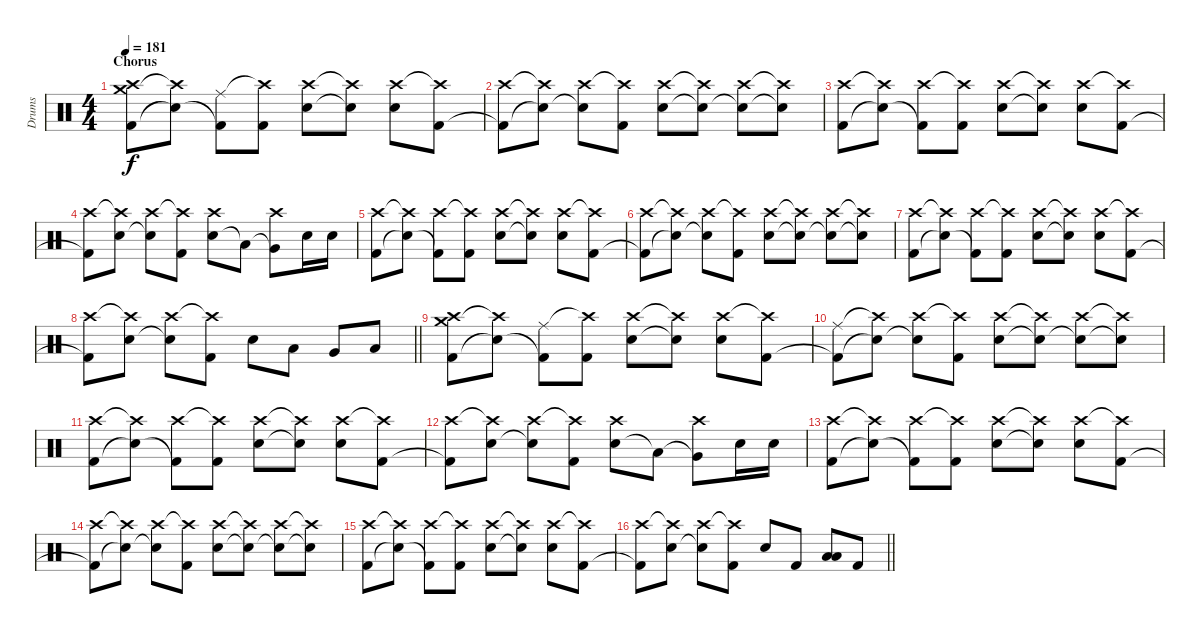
\track ("Drums" "Drums") {instrument percussion}
\staff {score}
\articulation defaults
\ts (4 4)
\section ("" "Chorus")
\tempo 181
\clef neutral
\ks c
("Kick (hit) 2" "Crash medium (hit)" "Crash high (hit)").8{dy f} ("Snare (hit)"{t} "Crash high (hit)"{t}).8 ("Kick (hit) 2"{t} "Ride (middle)").8 ("Kick (hit) 2" "Crash high (hit)"{t}).8 ("Electric Snare (hit)" "Crash high (hit)").8 ("Electric Snare (hit)"{t} "Crash high (hit)"{t}).8 ("Electric Snare (hit)" "Crash high (hit)").8 ("Kick (hit) 2" "Crash high (hit)"{t}).8 |
("Kick (hit) 2"{t} "Crash high (hit)").8 ("Snare (hit)"{t} "Crash high (hit)"{t}).8 ("Snare (hit)"{t} "Crash high (hit)").8 ("Kick (hit) 2" "Crash high (hit)"{t}).8 ("Electric Snare (hit)" "Crash high (hit)").8 ("Snare (hit)"{t} "Crash high (hit)"{t}).8 ("Snare (hit)"{t} "Crash high (hit)").8 ("Snare (hit)"{t} "Crash high (hit)"{t}).8 |
("Kick (hit) 2" "Crash high (hit)").8 ("Snare (hit)"{t} "Crash high (hit)"{t}).8 ("Kick (hit) 2"{t} "Crash high (hit)").8 ("Kick (hit) 2" "Crash high (hit)"{t}).8 ("Electric Snare (hit)" "Crash high (hit)").8 ("Electric Snare (hit)"{t} "Crash high (hit)"{t}).8 ("Electric Snare (hit)" "Crash high (hit)").8 ("Kick (hit) 2" "Crash high (hit)"{t}).8 |
("Kick (hit) 2"{t} "Crash high (hit)").8 ("Electric Snare (hit)" "Crash high (hit)"{t}).8 ("Snare (hit)"{t} "Crash high (hit)").8 ("Kick (hit) 2" "Crash high (hit)"{t}).8 ("Electric Snare (hit)" "Crash high (hit)").8 "Low Tom (hit)"{t}.8 ("Very Low Tom (hit)"{t} "Crash high (hit)").8 "Electric Snare (hit)".16 "Electric Snare (hit)".16 |
("Kick (hit) 2" "Crash high (hit)").8 ("Snare (hit)"{t} "Crash high (hit)"{t}).8 ("Kick (hit) 2"{t} "Crash high (hit)").8 ("Kick (hit) 2" "Crash high (hit)"{t}).8 ("Electric Snare (hit)" "Crash high (hit)").8 ("Electric Snare (hit)"{t} "Crash high (hit)"{t}).8 ("Electric Snare (hit)" "Crash high (hit)").8 ("Kick (hit) 2" "Crash high (hit)"{t}).8 |
("Kick (hit) 2"{t} "Crash high (hit)").8 ("Snare (hit)"{t} "Crash high (hit)"{t}).8 ("Snare (hit)"{t} "Crash high (hit)").8 ("Kick (hit) 2" "Crash high (hit)"{t}).8 ("Electric Snare (hit)" "Crash high (hit)").8 ("Snare (hit)"{t} "Crash high (hit)"{t}).8 ("Snare (hit)"{t} "Crash high (hit)").8 ("Snare (hit)"{t} "Crash high (hit)"{t}).8 |
("Kick (hit) 2" "Crash high (hit)").8 ("Snare (hit)"{t} "Crash high (hit)"{t}).8 ("Kick (hit) 2"{t} "Crash high (hit)").8 ("Kick (hit) 2" "Crash high (hit)"{t}).8 ("Electric Snare (hit)" "Crash high (hit)").8 ("Electric Snare (hit)"{t} "Crash high (hit)"{t}).8 ("Electric Snare (hit)" "Crash high (hit)").8 ("Kick (hit) 2" "Crash high (hit)"{t}).8 |
\barLineRight lightlight
("Kick (hit) 2"{t} "Crash high (hit)").8 ("Electric Snare (hit)" "Crash high (hit)"{t}).8 ("Snare (hit)"{t} "Crash high (hit)").8 ("Kick (hit) 2" "Crash high (hit)"{t}).8 "Electric Snare (hit)".8 "Low Tom (hit)".8 "Very Low Tom (hit)".8 "Low Floor Tom (hit)".8 |
("Kick (hit) 2" "Crash medium (hit)" "Crash high (hit)").8 ("Snare (hit)"{t} "Crash high (hit)"{t}).8 ("Kick (hit) 2"{t} "Ride (middle)").8 ("Kick (hit) 2" "Crash high (hit)"{t}).8 ("Electric Snare (hit)" "Crash high (hit)").8 ("Electric Snare (hit)"{t} "Crash high (hit)"{t}).8 ("Electric Snare (hit)" "Crash high (hit)").8 ("Kick (hit) 2" "Crash high (hit)"{t}).8 |
("Kick (hit) 2"{t} "Ride (middle)").8 ("Snare (hit)"{t} "Crash high (hit)"{t}).8 ("Snare (hit)"{t} "Crash high (hit)").8 ("Kick (hit) 2" "Crash high (hit)"{t}).8 ("Electric Snare (hit)" "Crash high (hit)").8 ("Snare (hit)"{t} "Crash high (hit)"{t}).8 ("Snare (hit)"{t} "Crash high (hit)").8 ("Snare (hit)"{t} "Crash high (hit)"{t}).8 |
("Kick (hit) 2" "Crash high (hit)").8 ("Snare (hit)"{t} "Crash high (hit)"{t}).8 ("Kick (hit) 2"{t} "Crash high (hit)").8 ("Kick (hit) 2" "Crash high (hit)"{t}).8 ("Electric Snare (hit)" "Crash high (hit)").8 ("Electric Snare (hit)"{t} "Crash high (hit)"{t}).8 ("Electric Snare (hit)" "Crash high (hit)").8 ("Kick (hit) 2" "Crash high (hit)"{t}).8 |
("Kick (hit) 2"{t} "Crash high (hit)").8 ("Electric Snare (hit)" "Crash high (hit)"{t}).8 ("Snare (hit)"{t} "Crash high (hit)").8 ("Kick (hit) 2" "Crash high (hit)"{t}).8 ("Electric Snare (hit)" "Crash high (hit)").8 "Low Tom (hit)"{t}.8 ("Very Low Tom (hit)"{t} "Crash high (hit)").8 "Electric Snare (hit)".16 "Electric Snare (hit)".16 |
("Kick (hit) 2" "Crash high (hit)").8 ("Snare (hit)"{t} "Crash high (hit)"{t}).8 ("Kick (hit) 2"{t} "Crash high (hit)").8 ("Kick (hit) 2" "Crash high (hit)"{t}).8 ("Electric Snare (hit)" "Crash high (hit)").8 ("Electric Snare (hit)"{t} "Crash high (hit)"{t}).8 ("Electric Snare (hit)" "Crash high (hit)").8 ("Kick (hit) 2" "Crash high (hit)"{t}).8 |
("Kick (hit) 2"{t} "Crash high (hit)").8 ("Snare (hit)"{t} "Crash high (hit)"{t}).8 ("Snare (hit)"{t} "Crash high (hit)").8 ("Kick (hit) 2" "Crash high (hit)"{t}).8 ("Electric Snare (hit)" "Crash high (hit)").8 ("Snare (hit)"{t} "Crash high (hit)"{t}).8 ("Snare (hit)"{t} "Crash high (hit)").8 ("Snare (hit)"{t} "Crash high (hit)"{t}).8 |
("Kick (hit) 2" "Crash high (hit)").8 ("Snare (hit)"{t} "Crash high (hit)"{t}).8 ("Kick (hit) 2"{t} "Crash high (hit)").8 ("Kick (hit) 2" "Crash high (hit)"{t}).8 ("Electric Snare (hit)" "Crash high (hit)").8 ("Electric Snare (hit)"{t} "Crash high (hit)"{t}).8 ("Electric Snare (hit)" "Crash high (hit)").8 ("Kick (hit) 2" "Crash high (hit)"{t}).8 |
\barLineRight lightlight
("Kick (hit) 2"{t} "Crash high (hit)").8 ("Electric Snare (hit)" "Crash high (hit)"{t}).8 ("Snare (hit)"{t} "Crash high (hit)").8 ("Kick (hit) 2" "Crash high (hit)"{t}).8 "Electric Snare (hit)".8 "Kick (hit) 2".8 ("Low Tom (hit)" "Low Floor Tom (hit)").8 "Kick (hit) 2".8
